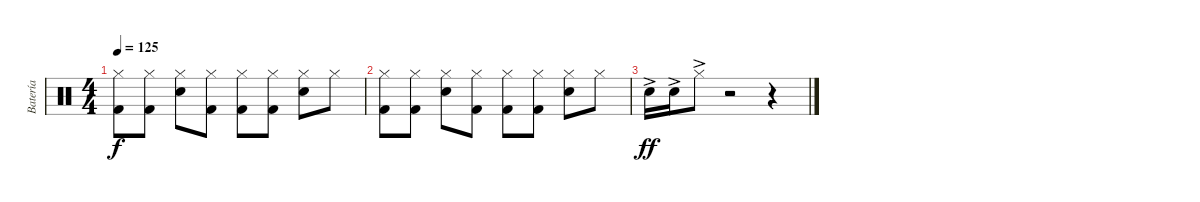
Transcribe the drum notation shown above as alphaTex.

\track ("Batería" "Batería") {instrument percussion}
\staff {score}
\articulation defaults
\ts (4 4)
\tempo 125
\clef neutral
\ks c
("Hi-Hat (closed)" "Kick (hit) 2").8{dy f} ("Hi-Hat (closed)" "Kick (hit) 2").8 ("Hi-Hat (closed)" "Snare (hit) 2").8 ("Hi-Hat (closed)" "Kick (hit) 2").8 ("Hi-Hat (closed)" "Kick (hit) 2").8 ("Hi-Hat (closed)" "Kick (hit) 2").8 ("Hi-Hat (closed)" "Snare (hit) 2").8 "Hi-Hat (closed)".8 |
("Hi-Hat (closed)" "Kick (hit) 2").8 ("Hi-Hat (closed)" "Kick (hit) 2").8 ("Hi-Hat (closed)" "Snare (hit) 2").8 ("Hi-Hat (closed)" "Kick (hit) 2").8 ("Hi-Hat (closed)" "Kick (hit) 2").8 ("Hi-Hat (closed)" "Kick (hit) 2").8 ("Hi-Hat (closed)" "Snare (hit) 2").8 "Hi-Hat (closed)".8 |
"Snare (hit) 2"{ac}.16{dy ff} "Snare (hit) 2"{ac}.16 "Hi-Hat (closed)"{ac}.8 r.2 r.4
